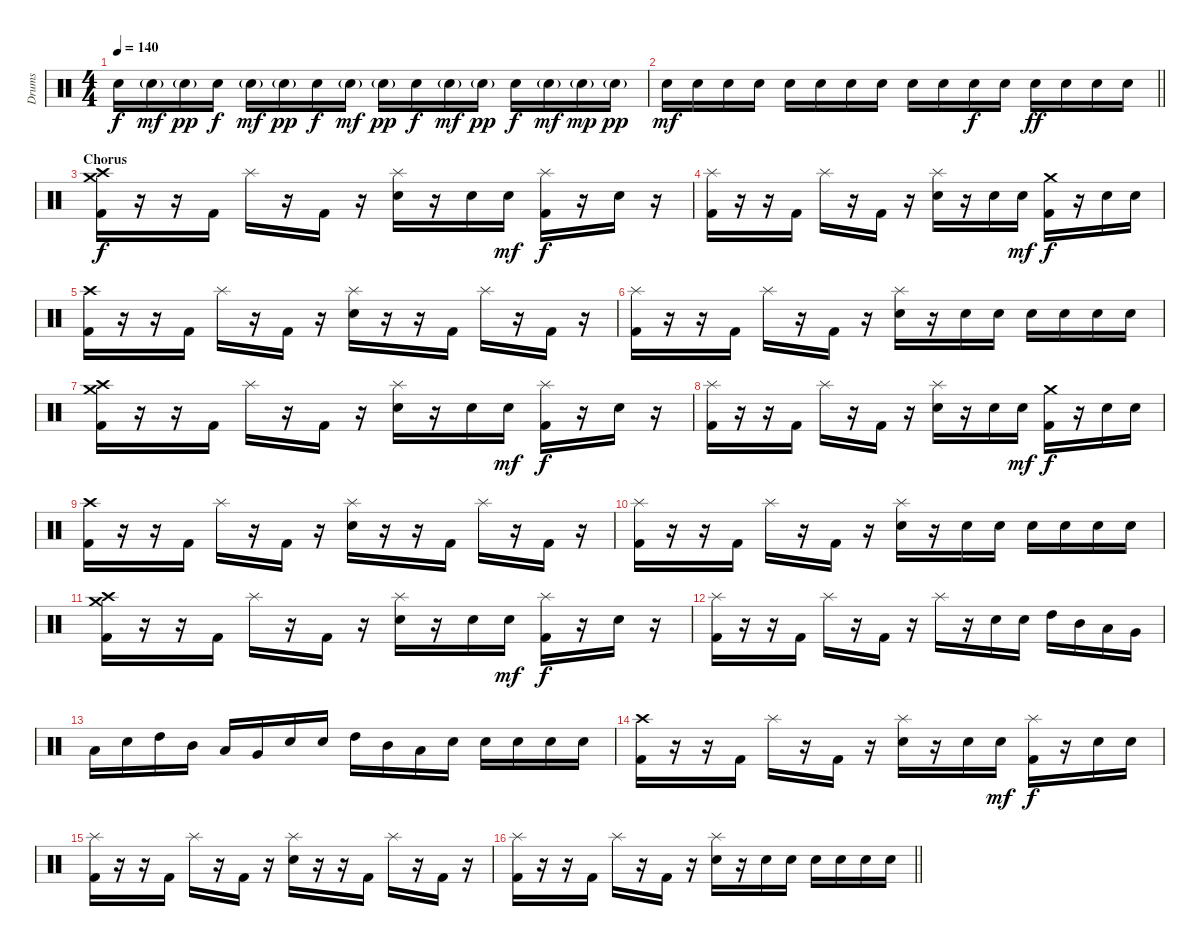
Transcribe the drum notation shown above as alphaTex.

\track ("Drums" "Drums") {instrument percussion}
\staff {score}
\articulation defaults
\ts (4 4)
\tempo 140
\clef neutral
\ks c "Electric Snare (hit)".16{dy f} "Electric Snare (hit)"{g}.16{dy mf} "Electric Snare (hit)"{g}.16{dy pp} "Electric Snare (hit)".16{dy f} "Electric Snare (hit)"{g}.16{dy mf} "Electric Snare (hit)"{g}.16{dy pp} "Electric Snare (hit)".16{dy f} "Electric Snare (hit)"{g}.16{dy mf} "Electric Snare (hit)"{g}.16{dy pp} "Electric Snare (hit)".16{dy f} "Electric Snare (hit)"{g}.16{dy mf} "Electric Snare (hit)"{g}.16{dy pp} "Electric Snare (hit)".16{dy f} "Electric Snare (hit)"{g}.16{dy mf} "Electric Snare (hit)"{g}.16{dy mp} "Electric Snare (hit)"{g}.16{dy pp}
|
\barLineRight lightlight "Electric Snare (hit)".16{dy mf} "Electric Snare (hit)".16 "Electric Snare (hit)".16 "Electric Snare (hit)".16 "Electric Snare (hit)".16 "Electric Snare (hit)".16 "Electric Snare (hit)".16 "Electric Snare (hit)".16 "Electric Snare (hit)".16 "Electric Snare (hit)".16 "Electric Snare (hit)".16{dy f} "Electric Snare (hit)".16 "Electric Snare (hit)".16{dy ff} "Electric Snare (hit)".16 "Electric Snare (hit)".16 "Electric Snare (hit)".16
|
\section ("" "Chorus")
("Crash high (hit)" "Crash medium (hit)" "Kick (hit) 2").16{dy f} r.16 r.16 "Kick (hit) 2".16 "Splash (hit)".16 r.16 "Kick (hit) 2".16 r.16 ("Splash (hit)" "Electric Snare (hit)").16 r.16 "Electric Snare (hit)".16 "Electric Snare (hit)".16{dy mf} ("Splash (hit)" "Kick (hit) 2").16{dy f} r.16 "Electric Snare (hit)".16 r.16 |
("Splash (hit)" "Kick (hit) 2").16 r.16 r.16 "Kick (hit) 2".16 "Splash (hit)".16 r.16 "Kick (hit) 2".16 r.16 ("Splash (hit)" "Electric Snare (hit)").16 r.16 "Electric Snare (hit)".16 "Electric Snare (hit)".16{dy mf} ("Crash medium (hit)" "Kick (hit) 2").16{dy f} r.16 "Electric Snare (hit)".16 "Electric Snare (hit)".16 |
("Crash high (hit)" "Kick (hit) 2").16 r.16 r.16 "Kick (hit) 2".16 "Splash (hit)".16 r.16 "Kick (hit) 2".16 r.16 ("Splash (hit)" "Electric Snare (hit)").16 r.16 r.16 "Kick (hit) 2".16 "Splash (hit)".16 r.16 "Kick (hit) 2".16 r.16 |
("Splash (hit)" "Kick (hit) 2").16 r.16 r.16 "Kick (hit) 2".16 "Splash (hit)".16 r.16 "Kick (hit) 2".16 r.16 ("Splash (hit)" "Electric Snare (hit)").16 r.16 "Electric Snare (hit)".16 "Electric Snare (hit)".16 "Electric Snare (hit)".16 "Electric Snare (hit)".16 "Electric Snare (hit)".16 "Electric Snare (hit)".16 |
("Crash high (hit)" "Crash medium (hit)" "Kick (hit) 2").16 r.16 r.16 "Kick (hit) 2".16 "Splash (hit)".16 r.16 "Kick (hit) 2".16 r.16 ("Splash (hit)" "Electric Snare (hit)").16 r.16 "Electric Snare (hit)".16 "Electric Snare (hit)".16{dy mf} ("Splash (hit)" "Kick (hit) 2").16{dy f} r.16 "Electric Snare (hit)".16 r.16 |
("Splash (hit)" "Kick (hit) 2").16 r.16 r.16 "Kick (hit) 2".16 "Splash (hit)".16 r.16 "Kick (hit) 2".16 r.16 ("Splash (hit)" "Electric Snare (hit)").16 r.16 "Electric Snare (hit)".16 "Electric Snare (hit)".16{dy mf} ("Crash medium (hit)" "Kick (hit) 2").16{dy f} r.16 "Electric Snare (hit)".16 "Electric Snare (hit)".16 |
("Crash high (hit)" "Kick (hit) 2").16 r.16 r.16 "Kick (hit) 2".16 "Splash (hit)".16 r.16 "Kick (hit) 2".16 r.16 ("Splash (hit)" "Electric Snare (hit)").16 r.16 r.16 "Kick (hit) 2".16 "Splash (hit)".16 r.16 "Kick (hit) 2".16 r.16 |
("Splash (hit)" "Kick (hit) 2").16 r.16 r.16 "Kick (hit) 2".16 "Splash (hit)".16 r.16 "Kick (hit) 2".16 r.16 ("Splash (hit)" "Electric Snare (hit)").16 r.16 "Electric Snare (hit)".16 "Electric Snare (hit)".16 "Electric Snare (hit)".16 "Electric Snare (hit)".16 "Electric Snare (hit)".16 "Electric Snare (hit)".16 |
("Crash high (hit)" "Crash medium (hit)" "Kick (hit) 2").16 r.16 r.16 "Kick (hit) 2".16 "Splash (hit)".16 r.16 "Kick (hit) 2".16 r.16 ("Splash (hit)" "Electric Snare (hit)").16 r.16 "Electric Snare (hit)".16 "Electric Snare (hit)".16{dy mf} ("Splash (hit)" "Kick (hit) 2").16{dy f} r.16 "Electric Snare (hit)".16 r.16 |
("Splash (hit)" "Kick (hit) 2").16 r.16 r.16 "Kick (hit) 2".16 "Splash (hit)".16 r.16 "Kick (hit) 2".16 r.16 "Splash (hit)".16 r.16 "Electric Snare (hit)".16 "Electric Snare (hit)".16 "High Tom (hit)".16 "Mid Tom (hit)".16 "Low Tom (hit)".16 "Very Low Tom (hit)".16 |
"Low Floor Tom (hit)".16 "Electric Snare (hit)".16 "High Tom (hit)".16 "Mid Tom (hit)".16 "Low Tom (hit)".16 "Very Low Tom (hit)".16 "Electric Snare (hit)".16 "Electric Snare (hit)".16 "High Tom (hit)".16 "Mid Tom (hit)".16 "Low Tom (hit)".16 "Electric Snare (hit)".16 "Electric Snare (hit)".16 "Electric Snare (hit)".16 "Electric Snare (hit)".16 "Electric Snare (hit)".16 |
("Crash high (hit)" "Kick (hit) 2").16 r.16 r.16 "Kick (hit) 2".16 "Splash (hit)".16 r.16 "Kick (hit) 2".16 r.16 ("Splash (hit)" "Electric Snare (hit)").16 r.16 "Electric Snare (hit)".16 "Electric Snare (hit)".16{dy mf} ("Splash (hit)" "Kick (hit) 2").16{dy f} r.16 "Electric Snare (hit)".16 "Electric Snare (hit)".16 |
("Splash (hit)" "Kick (hit) 2").16 r.16 r.16 "Kick (hit) 2".16 "Splash (hit)".16 r.16 "Kick (hit) 2".16 r.16 ("Splash (hit)" "Electric Snare (hit)").16 r.16 r.16 "Kick (hit) 2".16 "Splash (hit)".16 r.16 "Kick (hit) 2".16 r.16 |
\barLineRight lightlight
("Splash (hit)" "Kick (hit) 2").16 r.16 r.16 "Kick (hit) 2".16 "Splash (hit)".16 r.16 "Kick (hit) 2".16 r.16 ("Splash (hit)" "Electric Snare (hit)").16 r.16 "Electric Snare (hit)".16 "Electric Snare (hit)".16 "Electric Snare (hit)".16 "Electric Snare (hit)".16 "Electric Snare (hit)".16 "Electric Snare (hit)".16
